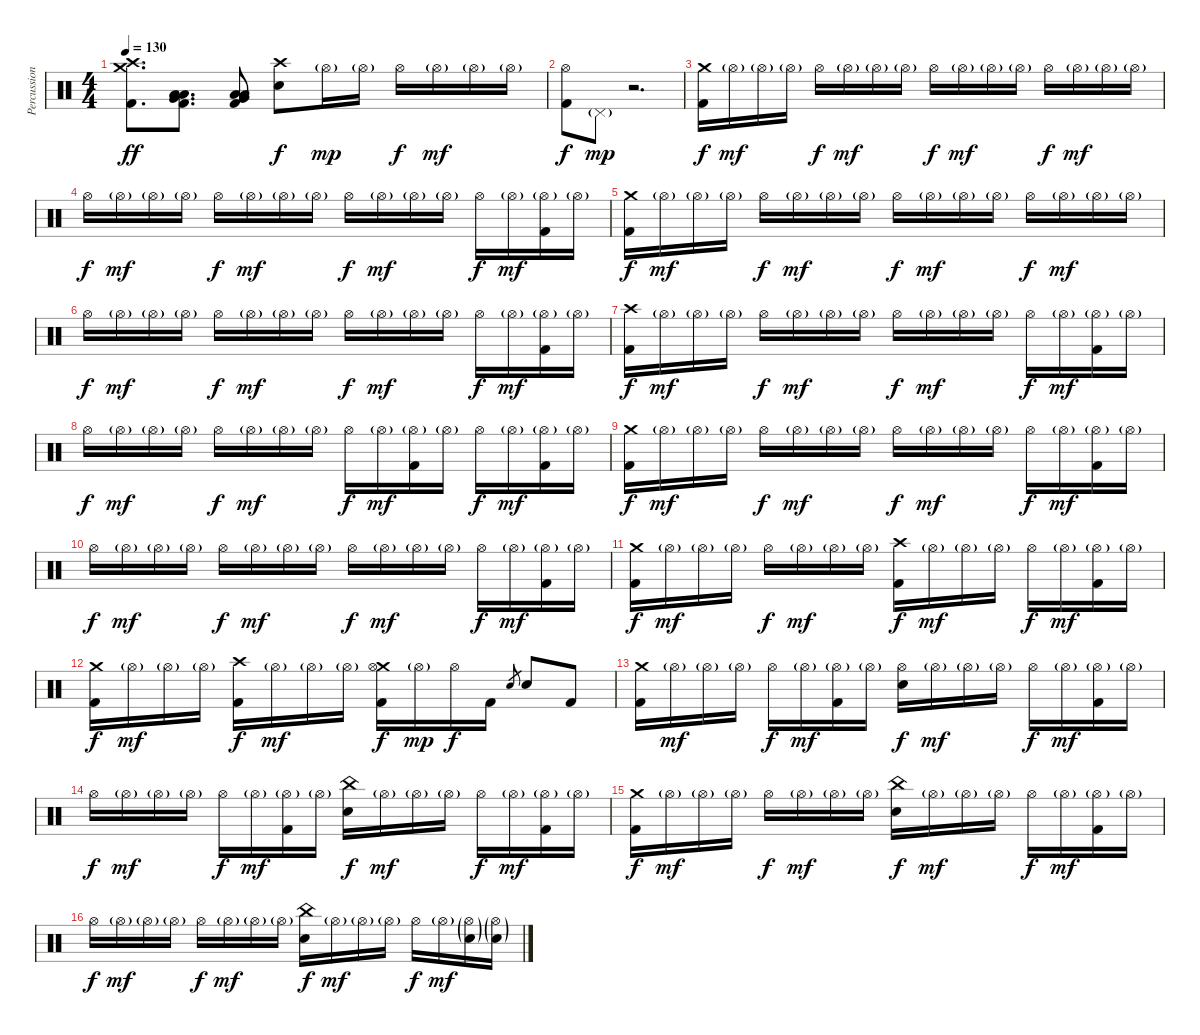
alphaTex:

\track ("Percussion" "Percussion") {instrument percussion}
\staff {score}
\articulation defaults
\ts (4 4)
\tempo 130
\clef neutral
\ks c
("Crash medium (hit)" "Crash high (hit)" "Kick (hit) 2").8{d dy ff} ("Low Tom (hit)" "Very Low Tom (hit)" "Low Floor Tom (hit)" "Kick (hit) 2").8{d} ("Low Tom (hit)" "Very Low Tom (hit)" "Low Floor Tom (hit)" "Kick (hit) 2").8 ("Crash high (hit)" "Electric Snare (hit)").8{dy f} "Hi-Hat (open)"{g}.16{dy mp} "Hi-Hat (open)"{g}.16 "Hi-Hat (open)".16{dy f} "Hi-Hat (open)"{g}.16{dy mf} "Hi-Hat (open)"{g}.16 "Hi-Hat (open)"{g}.16 |
("Hi-Hat (open)" "Kick (hit) 2").8{dy f} "Pedal Hi-Hat (hit)"{g}.8{dy mp} r.2{d} |
("Crash medium (hit)" "Kick (hit) 2").16{dy f} "Hi-Hat (open)"{g}.16{dy mf} "Hi-Hat (open)"{g}.16 "Hi-Hat (open)"{g}.16 "Hi-Hat (open)".16{dy f} "Hi-Hat (open)"{g}.16{dy mf} "Hi-Hat (open)"{g}.16 "Hi-Hat (open)"{g}.16 "Hi-Hat (open)".16{dy f} "Hi-Hat (open)"{g}.16{dy mf} "Hi-Hat (open)"{g}.16 "Hi-Hat (open)"{g}.16 "Hi-Hat (open)".16{dy f} "Hi-Hat (open)"{g}.16{dy mf} "Hi-Hat (open)"{g}.16 "Hi-Hat (open)"{g}.16 |
"Hi-Hat (open)".16{dy f} "Hi-Hat (open)"{g}.16{dy mf} "Hi-Hat (open)"{g}.16 "Hi-Hat (open)"{g}.16 "Hi-Hat (open)".16{dy f} "Hi-Hat (open)"{g}.16{dy mf} "Hi-Hat (open)"{g}.16 "Hi-Hat (open)"{g}.16 "Hi-Hat (open)".16{dy f} "Hi-Hat (open)"{g}.16{dy mf} "Hi-Hat (open)"{g}.16 "Hi-Hat (open)"{g}.16 "Hi-Hat (open)".16{dy f} "Hi-Hat (open)"{g}.16{dy mf} ("Hi-Hat (open)"{g} "Kick (hit) 2").16 "Hi-Hat (open)"{g}.16 |
("Crash medium (hit)" "Kick (hit) 2").16{dy f} "Hi-Hat (open)"{g}.16{dy mf} "Hi-Hat (open)"{g}.16 "Hi-Hat (open)"{g}.16 "Hi-Hat (open)".16{dy f} "Hi-Hat (open)"{g}.16{dy mf} "Hi-Hat (open)"{g}.16 "Hi-Hat (open)"{g}.16 "Hi-Hat (open)".16{dy f} "Hi-Hat (open)"{g}.16{dy mf} "Hi-Hat (open)"{g}.16 "Hi-Hat (open)"{g}.16 "Hi-Hat (open)".16{dy f} "Hi-Hat (open)"{g}.16{dy mf} "Hi-Hat (open)"{g}.16 "Hi-Hat (open)"{g}.16 |
"Hi-Hat (open)".16{dy f} "Hi-Hat (open)"{g}.16{dy mf} "Hi-Hat (open)"{g}.16 "Hi-Hat (open)"{g}.16 "Hi-Hat (open)".16{dy f} "Hi-Hat (open)"{g}.16{dy mf} "Hi-Hat (open)"{g}.16 "Hi-Hat (open)"{g}.16 "Hi-Hat (open)".16{dy f} "Hi-Hat (open)"{g}.16{dy mf} "Hi-Hat (open)"{g}.16 "Hi-Hat (open)"{g}.16 "Hi-Hat (open)".16{dy f} "Hi-Hat (open)"{g}.16{dy mf} ("Hi-Hat (open)"{g} "Kick (hit) 2").16 "Hi-Hat (open)"{g}.16 |
("Crash high (hit)" "Kick (hit) 2").16{dy f} "Hi-Hat (open)"{g}.16{dy mf} "Hi-Hat (open)"{g}.16 "Hi-Hat (open)"{g}.16 "Hi-Hat (open)".16{dy f} "Hi-Hat (open)"{g}.16{dy mf} "Hi-Hat (open)"{g}.16 "Hi-Hat (open)"{g}.16 "Hi-Hat (open)".16{dy f} "Hi-Hat (open)"{g}.16{dy mf} "Hi-Hat (open)"{g}.16 "Hi-Hat (open)"{g}.16 "Hi-Hat (open)".16{dy f} "Hi-Hat (open)"{g}.16{dy mf} ("Hi-Hat (open)"{g} "Kick (hit) 2").16 "Hi-Hat (open)"{g}.16 |
"Hi-Hat (open)".16{dy f} "Hi-Hat (open)"{g}.16{dy mf} "Hi-Hat (open)"{g}.16 "Hi-Hat (open)"{g}.16 "Hi-Hat (open)".16{dy f} "Hi-Hat (open)"{g}.16{dy mf} "Hi-Hat (open)"{g}.16 "Hi-Hat (open)"{g}.16 "Hi-Hat (open)".16{dy f} "Hi-Hat (open)"{g}.16{dy mf} ("Hi-Hat (open)"{g} "Kick (hit) 2").16 "Hi-Hat (open)"{g}.16 "Hi-Hat (open)".16{dy f} "Hi-Hat (open)"{g}.16{dy mf} ("Hi-Hat (open)"{g} "Kick (hit) 2").16 "Hi-Hat (open)"{g}.16 |
("Crash medium (hit)" "Kick (hit) 2").16{dy f} "Hi-Hat (open)"{g}.16{dy mf} "Hi-Hat (open)"{g}.16 "Hi-Hat (open)"{g}.16 "Hi-Hat (open)".16{dy f} "Hi-Hat (open)"{g}.16{dy mf} "Hi-Hat (open)"{g}.16 "Hi-Hat (open)"{g}.16 "Hi-Hat (open)".16{dy f} "Hi-Hat (open)"{g}.16{dy mf} "Hi-Hat (open)"{g}.16 "Hi-Hat (open)"{g}.16 "Hi-Hat (open)".16{dy f} "Hi-Hat (open)"{g}.16{dy mf} ("Hi-Hat (open)"{g} "Kick (hit) 2").16 "Hi-Hat (open)"{g}.16 |
"Hi-Hat (open)".16{dy f} "Hi-Hat (open)"{g}.16{dy mf} "Hi-Hat (open)"{g}.16 "Hi-Hat (open)"{g}.16 "Hi-Hat (open)".16{dy f} "Hi-Hat (open)"{g}.16{dy mf} "Hi-Hat (open)"{g}.16 "Hi-Hat (open)"{g}.16 "Hi-Hat (open)".16{dy f} "Hi-Hat (open)"{g}.16{dy mf} "Hi-Hat (open)"{g}.16 "Hi-Hat (open)"{g}.16 "Hi-Hat (open)".16{dy f} "Hi-Hat (open)"{g}.16{dy mf} ("Hi-Hat (open)"{g} "Kick (hit) 2").16 "Hi-Hat (open)"{g}.16 |
("Crash medium (hit)" "Kick (hit) 2").16{dy f} "Hi-Hat (open)"{g}.16{dy mf} "Hi-Hat (open)"{g}.16 "Hi-Hat (open)"{g}.16 "Hi-Hat (open)".16{dy f} "Hi-Hat (open)"{g}.16{dy mf} "Hi-Hat (open)"{g}.16 "Hi-Hat (open)"{g}.16 ("Crash high (hit)" "Kick (hit) 2").16{dy f} "Hi-Hat (open)"{g}.16{dy mf} "Hi-Hat (open)"{g}.16 "Hi-Hat (open)"{g}.16 "Hi-Hat (open)".16{dy f} "Hi-Hat (open)"{g}.16{dy mf} ("Hi-Hat (open)"{g} "Kick (hit) 2").16 "Hi-Hat (open)"{g}.16 |
("Crash medium (hit)" "Kick (hit) 2").16{dy f} "Hi-Hat (open)"{g}.16{dy mf} "Hi-Hat (open)"{g}.16 "Hi-Hat (open)"{g}.16 ("Crash high (hit)" "Kick (hit) 2").16{dy f} "Hi-Hat (open)"{g}.16{dy mf} "Hi-Hat (open)"{g}.16 "Hi-Hat (open)"{g}.16 ("Crash medium (hit)" "Hi-Hat (open)" "Kick (hit) 2").16{dy f} "Hi-Hat (open)"{g}.16{dy mp} "Hi-Hat (open)".16{dy f} "Kick (hit) 2".16 "Electric Snare (hit)".8{gr} "Electric Snare (hit)".8 "Kick (hit) 2".8 |
("Crash medium (hit)" "Kick (hit) 2").16 "Hi-Hat (open)"{g}.16{dy mf} "Hi-Hat (open)"{g}.16 "Hi-Hat (open)"{g}.16 "Hi-Hat (open)".16{dy f} "Hi-Hat (open)"{g}.16{dy mf} ("Hi-Hat (open)"{g} "Kick (hit) 2").16 "Hi-Hat (open)"{g}.16 ("Hi-Hat (open)" "Electric Snare (hit)").16{dy f} "Hi-Hat (open)"{g}.16{dy mf} "Hi-Hat (open)"{g}.16 "Hi-Hat (open)"{g}.16 "Hi-Hat (open)".16{dy f} "Hi-Hat (open)"{g}.16{dy mf} ("Hi-Hat (open)"{g} "Kick (hit) 2").16 "Hi-Hat (open)"{g}.16 |
"Hi-Hat (open)".16{dy f} "Hi-Hat (open)"{g}.16{dy mf} "Hi-Hat (open)"{g}.16 "Hi-Hat (open)"{g}.16 "Hi-Hat (open)".16{dy f} "Hi-Hat (open)"{g}.16{dy mf} ("Hi-Hat (open)"{g} "Kick (hit) 2").16 "Hi-Hat (open)"{g}.16 ("China (hit)" "Electric Snare (hit)").16{dy f} "Hi-Hat (open)"{g}.16{dy mf} "Hi-Hat (open)"{g}.16 "Hi-Hat (open)"{g}.16 "Hi-Hat (open)".16{dy f} "Hi-Hat (open)"{g}.16{dy mf} ("Hi-Hat (open)"{g} "Kick (hit) 2").16 "Hi-Hat (open)"{g}.16 |
("Crash medium (hit)" "Kick (hit) 2").16{dy f} "Hi-Hat (open)"{g}.16{dy mf} "Hi-Hat (open)"{g}.16 "Hi-Hat (open)"{g}.16 "Hi-Hat (open)".16{dy f} "Hi-Hat (open)"{g}.16{dy mf} "Hi-Hat (open)"{g}.16 "Hi-Hat (open)"{g}.16 ("China (hit)" "Electric Snare (hit)").16{dy f} "Hi-Hat (open)"{g}.16{dy mf} "Hi-Hat (open)"{g}.16 "Hi-Hat (open)"{g}.16 "Hi-Hat (open)".16{dy f} "Hi-Hat (open)"{g}.16{dy mf} ("Hi-Hat (open)"{g} "Kick (hit) 2").16 "Hi-Hat (open)"{g}.16 |
"Hi-Hat (open)".16{dy f} "Hi-Hat (open)"{g}.16{dy mf} "Hi-Hat (open)"{g}.16 "Hi-Hat (open)"{g}.16 "Hi-Hat (open)".16{dy f} "Hi-Hat (open)"{g}.16{dy mf} "Hi-Hat (open)"{g}.16 "Hi-Hat (open)"{g}.16 ("China (hit)" "Electric Snare (hit)").16{dy f} "Hi-Hat (open)"{g}.16{dy mf} "Hi-Hat (open)"{g}.16 "Hi-Hat (open)"{g}.16 "Hi-Hat (open)".16{dy f} "Hi-Hat (open)"{g}.16{dy mf} ("Hi-Hat (open)"{g} "Electric Snare (hit)"{g}).16 ("Hi-Hat (open)"{g} "Electric Snare (hit)"{g}).16
